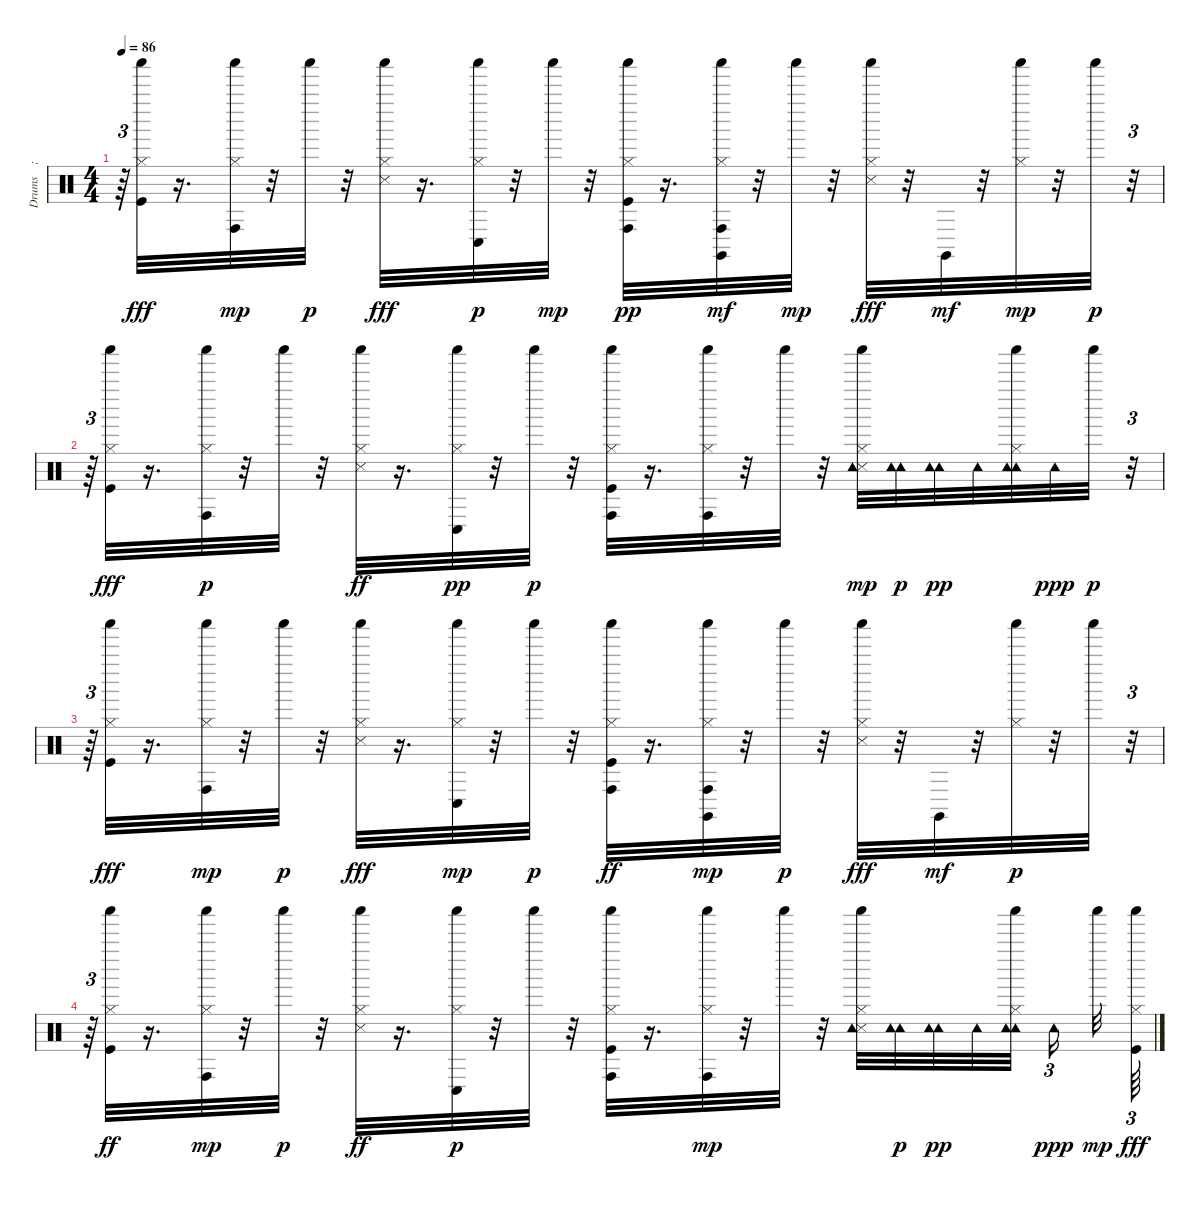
\track ("Drums    ; Standard" "Drums    ;") {instrument percussion}
\staff {score}
\articulation defaults
\ts (4 4)
\tempo 86
\clef neutral
\ks c
r.64{tu (3 2) dy mp} ("Kick (hit)" "Shaker (hit)" "Hi-Hat (closed)").32{dy fff} r.16{d} ("Conga high (hit)" "Shaker (hit)" "Hi-Hat (closed)").32{dy mp} r.32 "Shaker (hit)".32{dy p} r.32 ("Shaker (hit)" "Hi-Hat (closed)" "Snare (side stick) 3").32{dy fff} r.16{d} ("Conga low (hit)" "Shaker (hit)" "Hi-Hat (closed)").32{dy p} r.32 "Shaker (hit)".32{dy mp} r.32 ("Kick (hit)" "Hi-Hat (closed)" "Conga high (hit)" "Shaker (hit)").32{dy pp} r.16{d} ("Claves (hit)" "Conga high (hit)" "Shaker (hit)" "Hi-Hat (closed)").32{dy mf} r.32 "Shaker (hit)".32{dy mp} r.32 ("Snare (side stick) 3" "Shaker (hit)" "Hi-Hat (closed)").32{dy fff} r.32 "Claves (hit)".32{dy mf} r.32 ("Shaker (hit)" "Hi-Hat (closed)").32{dy mp} r.32 "Shaker (hit)".32{dy p} r.32{tu (3 2)} |
r.64{tu (3 2)} ("Shaker (hit)" "Kick (hit)" "Hi-Hat (closed)").32{dy fff} r.16{d} ("Hi-Hat (closed)" "Shaker (hit)" "Conga high (hit)").32{dy p} r.32 "Shaker (hit)".32 r.32 ("Snare (side stick) 3" "Hi-Hat (closed)" "Shaker (hit)").32{dy ff} r.16{d} ("Hi-Hat (closed)" "Shaker (hit)" "Conga low (hit)").32{dy pp} r.32 "Shaker (hit)".32{dy p} r.32 ("Kick (hit)" "Shaker (hit)" "Hi-Hat (closed)" "Conga high (hit)").32 r.16{d} ("Shaker (hit)" "Hi-Hat (closed)" "Conga high (hit)").32 r.32 "Shaker (hit)".32 r.32 ("Hi-Hat (closed)" "Shaker (hit)" "Snare (side stick) 3" "Tambourine (hit)").32{dy mp} ("Tambourine (hit)" "Tambourine (hit)").32{dy p} ("Tambourine (hit)" "Tambourine (hit)").32{dy pp} "Tambourine (hit)".32 ("Tambourine (hit)" "Shaker (hit)" "Hi-Hat (closed)" "Tambourine (hit)").32 "Tambourine (hit)".32{dy ppp} "Shaker (hit)".32{dy p} r.32{tu (3 2)} |
r.64{tu (3 2)} ("Shaker (hit)" "Kick (hit)" "Hi-Hat (closed)").32{dy fff} r.16{d} ("Conga high (hit)" "Shaker (hit)" "Hi-Hat (closed)").32{dy mp} r.32 "Shaker (hit)".32{dy p} r.32 ("Shaker (hit)" "Snare (side stick) 3" "Hi-Hat (closed)").32{dy fff} r.16{d} ("Conga low (hit)" "Shaker (hit)" "Hi-Hat (closed)").32{dy mp} r.32 "Shaker (hit)".32{dy p} r.32 ("Conga high (hit)" "Kick (hit)" "Shaker (hit)" "Hi-Hat (closed)").32{dy ff} r.16{d} ("Claves (hit)" "Conga high (hit)" "Shaker (hit)" "Hi-Hat (closed)").32{dy mp} r.32 "Shaker (hit)".32{dy p} r.32 ("Snare (side stick) 3" "Shaker (hit)" "Hi-Hat (closed)").32{dy fff} r.32 "Claves (hit)".32{dy mf} r.32 ("Hi-Hat (closed)" "Shaker (hit)").32{dy p} r.32 "Shaker (hit)".32 r.32{tu (3 2)} |
r.64{tu (3 2)} ("Kick (hit)" "Hi-Hat (closed)" "Shaker (hit)").32{dy ff} r.16{d} ("Shaker (hit)" "Hi-Hat (closed)" "Conga high (hit)").32{dy mp} r.32 "Shaker (hit)".32{dy p} r.32 ("Snare (side stick) 3" "Shaker (hit)" "Hi-Hat (closed)").32{dy ff} r.16{d} ("Conga low (hit)" "Shaker (hit)" "Hi-Hat (closed)").32{dy p} r.32 "Shaker (hit)".32 r.32 ("Kick (hit)" "Shaker (hit)" "Hi-Hat (closed)" "Conga high (hit)").32 r.16{d} ("Shaker (hit)" "Hi-Hat (closed)" "Conga high (hit)").32{dy mp} r.32 "Shaker (hit)".32 r.32 ("Shaker (hit)" "Snare (side stick) 3" "Hi-Hat (closed)" "Tambourine (hit)").32 ("Tambourine (hit)" "Tambourine (hit)").32{dy p} ("Tambourine (hit)" "Tambourine (hit)").32{dy pp} "Tambourine (hit)".32 ("Tambourine (hit)" "Shaker (hit)" "Hi-Hat (closed)" "Tambourine (hit)").32 "Tambourine (hit)".16{tu (3 2) dy ppp} "Shaker (hit)".32{dy mp} ("Kick (hit)" "Shaker (hit)" "Hi-Hat (closed)").64{tu (3 2) dy fff}
